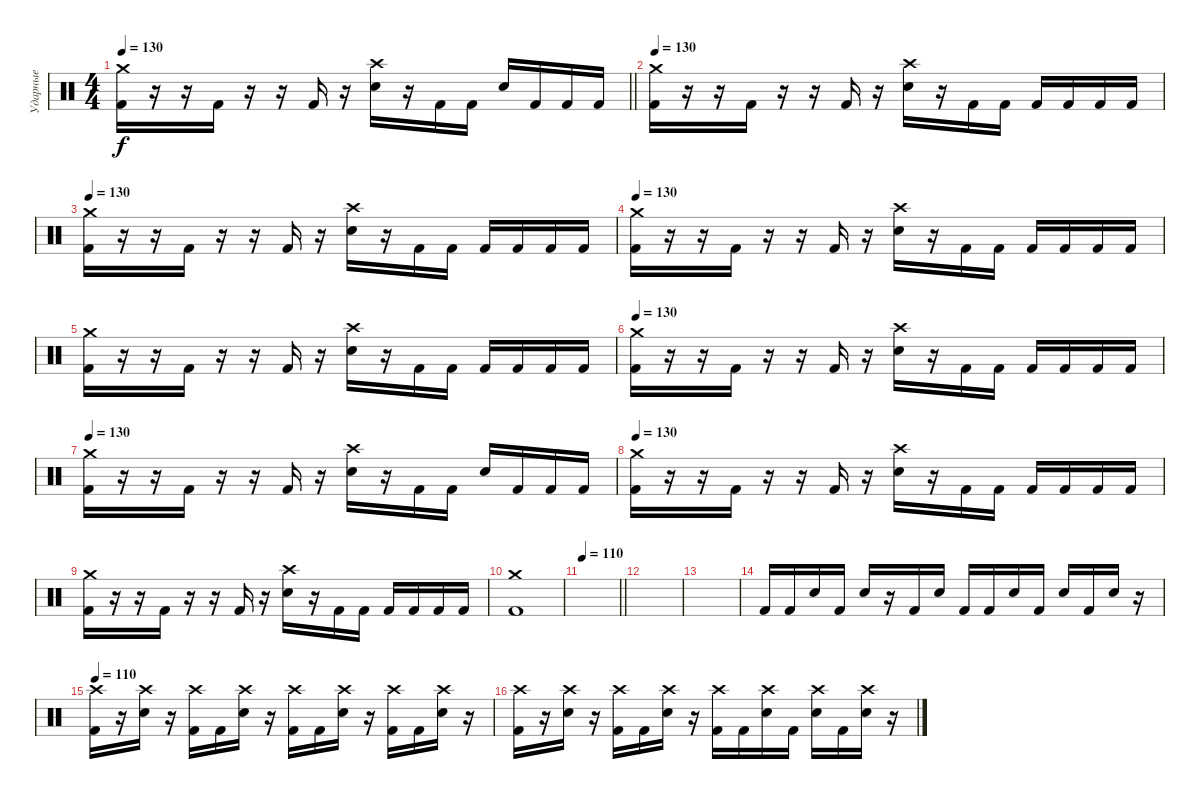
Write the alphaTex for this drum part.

\track ("Ударные" "Ударные") {instrument percussion}
\staff {score}
\articulation defaults
\ts (4 4)
\tempo 130
\clef neutral
\barLineRight lightlight
\ks c
("Crash medium (hit)" "Kick (hit) 2").16{dy f} r.16 r.16 "Kick (hit) 2".16 r.16 r.16 "Kick (hit) 2".16 r.16 ("Crash high (hit)" "Snare (hit) 2").16 r.16 "Kick (hit) 2".16 "Kick (hit) 2".16 "Snare (hit) 2".16 "Kick (hit) 2".16 "Kick (hit) 2".16 "Kick (hit) 2".16 |
\tempo 130
("Crash medium (hit)" "Kick (hit) 2").16 r.16 r.16 "Kick (hit) 2".16 r.16 r.16 "Kick (hit) 2".16 r.16 ("Crash high (hit)" "Snare (hit) 2").16 r.16 "Kick (hit) 2".16 "Kick (hit) 2".16 "Kick (hit) 2".16 "Kick (hit) 2".16 "Kick (hit) 2".16 "Kick (hit) 2".16 |
\tempo 130
("Crash medium (hit)" "Kick (hit) 2").16 r.16 r.16 "Kick (hit) 2".16 r.16 r.16 "Kick (hit) 2".16 r.16 ("Crash high (hit)" "Snare (hit) 2").16 r.16 "Kick (hit) 2".16 "Kick (hit) 2".16 "Kick (hit) 2".16 "Kick (hit) 2".16 "Kick (hit) 2".16 "Kick (hit) 2".16 |
\tempo 130
("Crash medium (hit)" "Kick (hit) 2").16 r.16 r.16 "Kick (hit) 2".16 r.16 r.16 "Kick (hit) 2".16 r.16 ("Crash high (hit)" "Snare (hit) 2").16 r.16 "Kick (hit) 2".16 "Kick (hit) 2".16 "Kick (hit) 2".16 "Kick (hit) 2".16 "Kick (hit) 2".16 "Kick (hit) 2".16 |
("Crash medium (hit)" "Kick (hit) 2").16 r.16 r.16 "Kick (hit) 2".16 r.16 r.16 "Kick (hit) 2".16 r.16 ("Crash high (hit)" "Snare (hit) 2").16 r.16 "Kick (hit) 2".16 "Kick (hit) 2".16 "Kick (hit) 2".16 "Kick (hit) 2".16 "Kick (hit) 2".16 "Kick (hit) 2".16 |
\tempo 130
("Crash medium (hit)" "Kick (hit) 2").16 r.16 r.16 "Kick (hit) 2".16 r.16 r.16 "Kick (hit) 2".16 r.16 ("Crash high (hit)" "Snare (hit) 2").16 r.16 "Kick (hit) 2".16 "Kick (hit) 2".16 "Kick (hit) 2".16 "Kick (hit) 2".16 "Kick (hit) 2".16 "Kick (hit) 2".16 |
\tempo 130
("Crash medium (hit)" "Kick (hit) 2").16 r.16 r.16 "Kick (hit) 2".16 r.16 r.16 "Kick (hit) 2".16 r.16 ("Crash high (hit)" "Snare (hit) 2").16 r.16 "Kick (hit) 2".16 "Kick (hit) 2".16 "Snare (hit) 2".16 "Kick (hit) 2".16 "Kick (hit) 2".16 "Kick (hit) 2".16 |
\tempo 130
("Crash medium (hit)" "Kick (hit) 2").16 r.16 r.16 "Kick (hit) 2".16 r.16 r.16 "Kick (hit) 2".16 r.16 ("Crash high (hit)" "Snare (hit) 2").16 r.16 "Kick (hit) 2".16 "Kick (hit) 2".16 "Kick (hit) 2".16 "Kick (hit) 2".16 "Kick (hit) 2".16 "Kick (hit) 2".16 |
("Crash medium (hit)" "Kick (hit) 2").16 r.16 r.16 "Kick (hit) 2".16 r.16 r.16 "Kick (hit) 2".16 r.16 ("Crash high (hit)" "Snare (hit) 2").16 r.16 "Kick (hit) 2".16 "Kick (hit) 2".16 "Kick (hit) 2".16 "Kick (hit) 2".16 "Kick (hit) 2".16 "Kick (hit) 2".16 |
("Crash medium (hit)" "Kick (hit) 2").1 |
\tempo 110
\barLineRight lightlight
|
|
|
"Kick (hit) 2".16 "Kick (hit) 2".16 "Snare (hit) 2".16 "Kick (hit) 2".16 "Snare (hit) 2".16 r.16 "Kick (hit) 2".16 "Snare (hit) 2".16 "Kick (hit) 2".16 "Kick (hit) 2".16 "Snare (hit) 2".16 "Kick (hit) 2".16 "Snare (hit) 2".16 "Kick (hit) 2".16 "Snare (hit) 2".16 r.16 |
\tempo 110
("Crash high (hit)" "Kick (hit) 2").16 r.16 ("Crash high (hit)" "Snare (hit) 2").16 r.16 ("Crash high (hit)" "Kick (hit) 2").16 "Kick (hit) 2".16 ("Crash high (hit)" "Snare (hit) 2").16 r.16 ("Crash high (hit)" "Kick (hit) 2").16 "Kick (hit) 2".16 ("Crash high (hit)" "Snare (hit) 2").16 r.16 ("Crash high (hit)" "Kick (hit) 2").16 "Kick (hit) 2".16 ("Crash high (hit)" "Snare (hit) 2").16 r.16 |
("Crash high (hit)" "Kick (hit) 2").16 r.16 ("Crash high (hit)" "Snare (hit) 2").16 r.16 ("Crash high (hit)" "Kick (hit) 2").16 "Kick (hit) 2".16 ("Crash high (hit)" "Snare (hit) 2").16 r.16 ("Crash high (hit)" "Kick (hit) 2").16 "Kick (hit) 2".16 ("Crash high (hit)" "Snare (hit) 2").16 "Kick (hit) 2".16 ("Crash high (hit)" "Snare (hit) 2").16 "Kick (hit) 2".16 ("Crash high (hit)" "Snare (hit) 2").16 r.16
